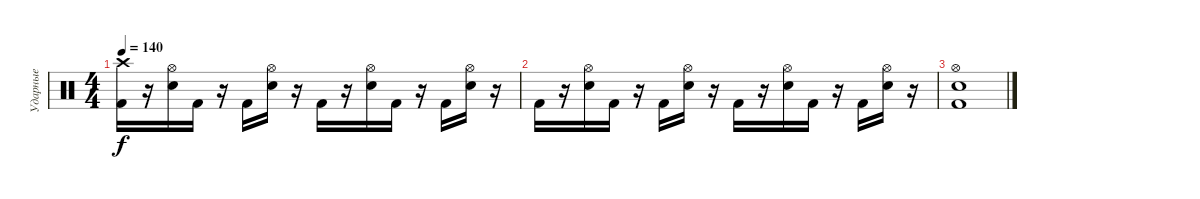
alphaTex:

\track ("Ударные" "Ударные") {instrument percussion}
\staff {score}
\articulation defaults
\ts (4 4)
\tempo 140
\clef neutral
\ks c
("Kick (hit) 2" "Crash high (hit)").16{dy f} r.16 ("Electric Snare (hit)" "Hi-Hat (open)").16 "Kick (hit) 2".16 r.16 "Kick (hit) 2".16 ("Electric Snare (hit)" "Hi-Hat (open)").16 r.16 "Kick (hit) 2".16 r.16 ("Electric Snare (hit)" "Hi-Hat (open)").16 "Kick (hit) 2".16 r.16 "Kick (hit) 2".16 ("Electric Snare (hit)" "Hi-Hat (open)").16 r.16 |
"Kick (hit) 2".16 r.16 ("Electric Snare (hit)" "Hi-Hat (open)").16 "Kick (hit) 2".16 r.16 "Kick (hit) 2".16 ("Electric Snare (hit)" "Hi-Hat (open)").16 r.16 "Kick (hit) 2".16 r.16 ("Electric Snare (hit)" "Hi-Hat (open)").16 "Kick (hit) 2".16 r.16 "Kick (hit) 2".16 ("Electric Snare (hit)" "Hi-Hat (open)").16 r.16 |
("Electric Snare (hit)" "Kick (hit) 2" "Hi-Hat (open)").1
